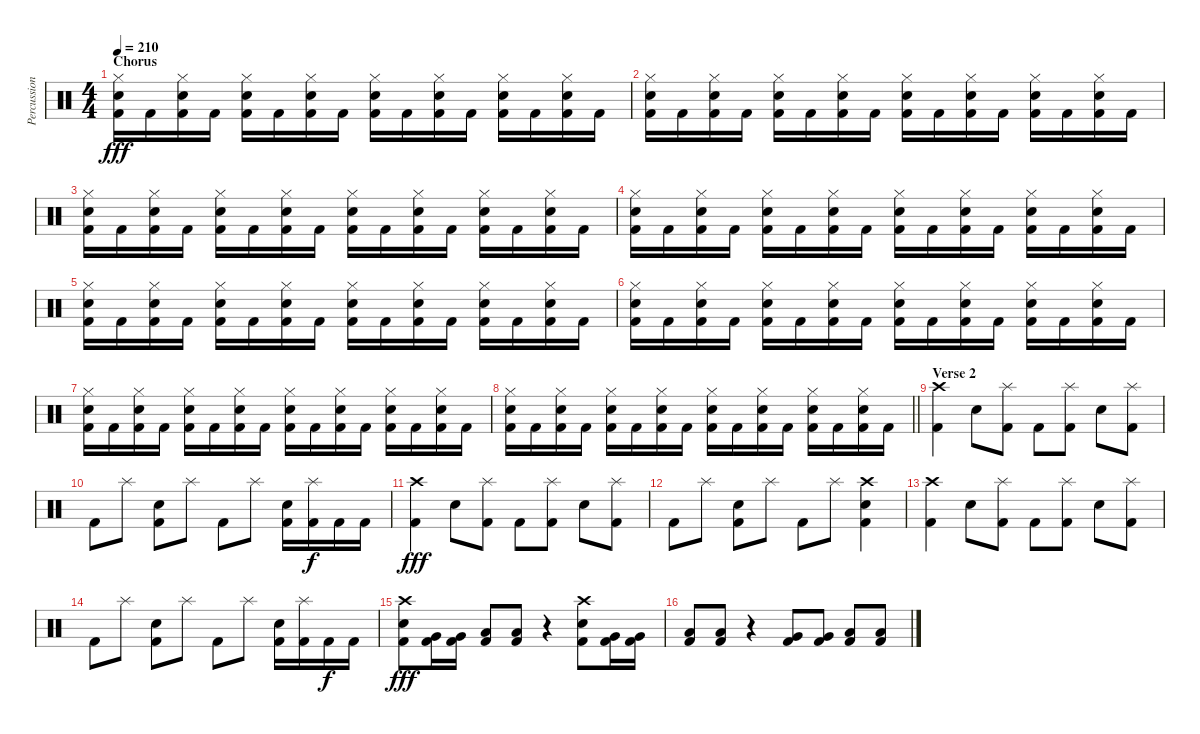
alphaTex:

\track ("Percussion" "Percussion") {instrument percussion}
\staff {score}
\articulation defaults
\ts (4 4)
\section ("" "Chorus")
\tempo 210
\clef neutral
\ks c
("Hi-Hat (closed)" "Electric Snare (hit)" "Kick (hit) 2").16{dy fff} "Kick (hit) 2".16 ("Hi-Hat (closed)" "Electric Snare (hit)" "Kick (hit) 2").16 "Kick (hit) 2".16 ("Hi-Hat (closed)" "Electric Snare (hit)" "Kick (hit) 2").16 "Kick (hit) 2".16 ("Hi-Hat (closed)" "Electric Snare (hit)" "Kick (hit) 2").16 "Kick (hit) 2".16 ("Hi-Hat (closed)" "Electric Snare (hit)" "Kick (hit) 2").16 "Kick (hit) 2".16 ("Hi-Hat (closed)" "Electric Snare (hit)" "Kick (hit) 2").16 "Kick (hit) 2".16 ("Hi-Hat (closed)" "Electric Snare (hit)" "Kick (hit) 2").16 "Kick (hit) 2".16 ("Hi-Hat (closed)" "Electric Snare (hit)" "Kick (hit) 2").16 "Kick (hit) 2".16 |
("Hi-Hat (closed)" "Electric Snare (hit)" "Kick (hit) 2").16 "Kick (hit) 2".16 ("Hi-Hat (closed)" "Electric Snare (hit)" "Kick (hit) 2").16 "Kick (hit) 2".16 ("Hi-Hat (closed)" "Electric Snare (hit)" "Kick (hit) 2").16 "Kick (hit) 2".16 ("Hi-Hat (closed)" "Electric Snare (hit)" "Kick (hit) 2").16 "Kick (hit) 2".16 ("Hi-Hat (closed)" "Electric Snare (hit)" "Kick (hit) 2").16 "Kick (hit) 2".16 ("Hi-Hat (closed)" "Electric Snare (hit)" "Kick (hit) 2").16 "Kick (hit) 2".16 ("Hi-Hat (closed)" "Electric Snare (hit)" "Kick (hit) 2").16 "Kick (hit) 2".16 ("Hi-Hat (closed)" "Electric Snare (hit)" "Kick (hit) 2").16 "Kick (hit) 2".16 |
("Hi-Hat (closed)" "Electric Snare (hit)" "Kick (hit) 2").16 "Kick (hit) 2".16 ("Hi-Hat (closed)" "Electric Snare (hit)" "Kick (hit) 2").16 "Kick (hit) 2".16 ("Hi-Hat (closed)" "Electric Snare (hit)" "Kick (hit) 2").16 "Kick (hit) 2".16 ("Hi-Hat (closed)" "Electric Snare (hit)" "Kick (hit) 2").16 "Kick (hit) 2".16 ("Hi-Hat (closed)" "Electric Snare (hit)" "Kick (hit) 2").16 "Kick (hit) 2".16 ("Hi-Hat (closed)" "Electric Snare (hit)" "Kick (hit) 2").16 "Kick (hit) 2".16 ("Hi-Hat (closed)" "Electric Snare (hit)" "Kick (hit) 2").16 "Kick (hit) 2".16 ("Hi-Hat (closed)" "Electric Snare (hit)" "Kick (hit) 2").16 "Kick (hit) 2".16 |
("Hi-Hat (closed)" "Electric Snare (hit)" "Kick (hit) 2").16 "Kick (hit) 2".16 ("Hi-Hat (closed)" "Electric Snare (hit)" "Kick (hit) 2").16 "Kick (hit) 2".16 ("Hi-Hat (closed)" "Electric Snare (hit)" "Kick (hit) 2").16 "Kick (hit) 2".16 ("Hi-Hat (closed)" "Electric Snare (hit)" "Kick (hit) 2").16 "Kick (hit) 2".16 ("Hi-Hat (closed)" "Electric Snare (hit)" "Kick (hit) 2").16 "Kick (hit) 2".16 ("Hi-Hat (closed)" "Electric Snare (hit)" "Kick (hit) 2").16 "Kick (hit) 2".16 ("Hi-Hat (closed)" "Electric Snare (hit)" "Kick (hit) 2").16 "Kick (hit) 2".16 ("Hi-Hat (closed)" "Electric Snare (hit)" "Kick (hit) 2").16 "Kick (hit) 2".16 |
("Hi-Hat (closed)" "Electric Snare (hit)" "Kick (hit) 2").16 "Kick (hit) 2".16 ("Hi-Hat (closed)" "Electric Snare (hit)" "Kick (hit) 2").16 "Kick (hit) 2".16 ("Hi-Hat (closed)" "Electric Snare (hit)" "Kick (hit) 2").16 "Kick (hit) 2".16 ("Hi-Hat (closed)" "Electric Snare (hit)" "Kick (hit) 2").16 "Kick (hit) 2".16 ("Hi-Hat (closed)" "Electric Snare (hit)" "Kick (hit) 2").16 "Kick (hit) 2".16 ("Hi-Hat (closed)" "Electric Snare (hit)" "Kick (hit) 2").16 "Kick (hit) 2".16 ("Hi-Hat (closed)" "Electric Snare (hit)" "Kick (hit) 2").16 "Kick (hit) 2".16 ("Hi-Hat (closed)" "Electric Snare (hit)" "Kick (hit) 2").16 "Kick (hit) 2".16 |
("Hi-Hat (closed)" "Electric Snare (hit)" "Kick (hit) 2").16 "Kick (hit) 2".16 ("Hi-Hat (closed)" "Electric Snare (hit)" "Kick (hit) 2").16 "Kick (hit) 2".16 ("Hi-Hat (closed)" "Electric Snare (hit)" "Kick (hit) 2").16 "Kick (hit) 2".16 ("Hi-Hat (closed)" "Electric Snare (hit)" "Kick (hit) 2").16 "Kick (hit) 2".16 ("Hi-Hat (closed)" "Electric Snare (hit)" "Kick (hit) 2").16 "Kick (hit) 2".16 ("Hi-Hat (closed)" "Electric Snare (hit)" "Kick (hit) 2").16 "Kick (hit) 2".16 ("Hi-Hat (closed)" "Electric Snare (hit)" "Kick (hit) 2").16 "Kick (hit) 2".16 ("Hi-Hat (closed)" "Electric Snare (hit)" "Kick (hit) 2").16 "Kick (hit) 2".16 |
("Hi-Hat (closed)" "Electric Snare (hit)" "Kick (hit) 2").16 "Kick (hit) 2".16 ("Hi-Hat (closed)" "Electric Snare (hit)" "Kick (hit) 2").16 "Kick (hit) 2".16 ("Hi-Hat (closed)" "Electric Snare (hit)" "Kick (hit) 2").16 "Kick (hit) 2".16 ("Hi-Hat (closed)" "Electric Snare (hit)" "Kick (hit) 2").16 "Kick (hit) 2".16 ("Hi-Hat (closed)" "Electric Snare (hit)" "Kick (hit) 2").16 "Kick (hit) 2".16 ("Hi-Hat (closed)" "Electric Snare (hit)" "Kick (hit) 2").16 "Kick (hit) 2".16 ("Hi-Hat (closed)" "Electric Snare (hit)" "Kick (hit) 2").16 "Kick (hit) 2".16 ("Hi-Hat (closed)" "Electric Snare (hit)" "Kick (hit) 2").16 "Kick (hit) 2".16 |
\barLineRight lightlight
("Hi-Hat (closed)" "Electric Snare (hit)" "Kick (hit) 2").16 "Kick (hit) 2".16 ("Hi-Hat (closed)" "Electric Snare (hit)" "Kick (hit) 2").16 "Kick (hit) 2".16 ("Hi-Hat (closed)" "Electric Snare (hit)" "Kick (hit) 2").16 "Kick (hit) 2".16 ("Hi-Hat (closed)" "Electric Snare (hit)" "Kick (hit) 2").16 "Kick (hit) 2".16 ("Hi-Hat (closed)" "Electric Snare (hit)" "Kick (hit) 2").16 "Kick (hit) 2".16 ("Hi-Hat (closed)" "Electric Snare (hit)" "Kick (hit) 2").16 "Kick (hit) 2".16 ("Hi-Hat (closed)" "Electric Snare (hit)" "Kick (hit) 2").16 "Kick (hit) 2".16 ("Hi-Hat (closed)" "Electric Snare (hit)" "Kick (hit) 2").16 "Kick (hit) 2".16 |
\section ("" "Verse 2")
("Crash high (hit)" "Kick (hit) 2").4 "Electric Snare (hit)".8 ("Splash (hit)" "Kick (hit) 2").8 "Kick (hit) 2".8 ("Splash (hit)" "Kick (hit) 2").8 "Electric Snare (hit)".8 ("Splash (hit)" "Kick (hit) 2").8 |
"Kick (hit) 2".8 "Splash (hit)".8 ("Electric Snare (hit)" "Kick (hit) 2").8 "Splash (hit)".8 "Kick (hit) 2".8 "Splash (hit)".8 ("Electric Snare (hit)" "Kick (hit) 2").16 ("Splash (hit)" "Kick (hit) 2").16{dy f} "Kick (hit) 2".16 "Kick (hit) 2".16 |
("Crash high (hit)" "Kick (hit) 2").4{dy fff} "Electric Snare (hit)".8 ("Splash (hit)" "Kick (hit) 2").8 "Kick (hit) 2".8 ("Splash (hit)" "Kick (hit) 2").8 "Electric Snare (hit)".8 ("Splash (hit)" "Kick (hit) 2").8 |
"Kick (hit) 2".8 "Splash (hit)".8 ("Electric Snare (hit)" "Kick (hit) 2").8 "Splash (hit)".8 "Kick (hit) 2".8 "Splash (hit)".8 ("Crash high (hit)" "Electric Snare (hit)" "Kick (hit) 2").4 |
("Crash high (hit)" "Kick (hit) 2").4 "Electric Snare (hit)".8 ("Splash (hit)" "Kick (hit) 2").8 "Kick (hit) 2".8 ("Splash (hit)" "Kick (hit) 2").8 "Electric Snare (hit)".8 ("Splash (hit)" "Kick (hit) 2").8 |
"Kick (hit) 2".8 "Splash (hit)".8 ("Electric Snare (hit)" "Kick (hit) 2").8 "Splash (hit)".8 "Kick (hit) 2".8 "Splash (hit)".8 ("Electric Snare (hit)" "Kick (hit) 2").16 ("Splash (hit)" "Kick (hit) 2").16 "Kick (hit) 2".16{dy f} "Kick (hit) 2".16 |
("Crash high (hit)" "Electric Snare (hit)" "Kick (hit) 2").8{dy fff} ("Very Low Tom (hit)" "Kick (hit) 2").16 ("Very Low Tom (hit)" "Kick (hit) 2").16 ("Low Floor Tom (hit)" "Kick (hit) 2").8 ("Low Floor Tom (hit)" "Kick (hit) 2").8 r.4 ("Crash high (hit)" "Electric Snare (hit)" "Kick (hit) 2").8 ("Very Low Tom (hit)" "Kick (hit) 2").16 ("Very Low Tom (hit)" "Kick (hit) 2").16 |
("Low Floor Tom (hit)" "Kick (hit) 2").8 ("Low Floor Tom (hit)" "Kick (hit) 2").8 r.4 ("Very Low Tom (hit)" "Kick (hit) 2").8 ("Very Low Tom (hit)" "Kick (hit) 2").8 ("Low Floor Tom (hit)" "Kick (hit) 2").8 ("Low Floor Tom (hit)" "Kick (hit) 2").8
